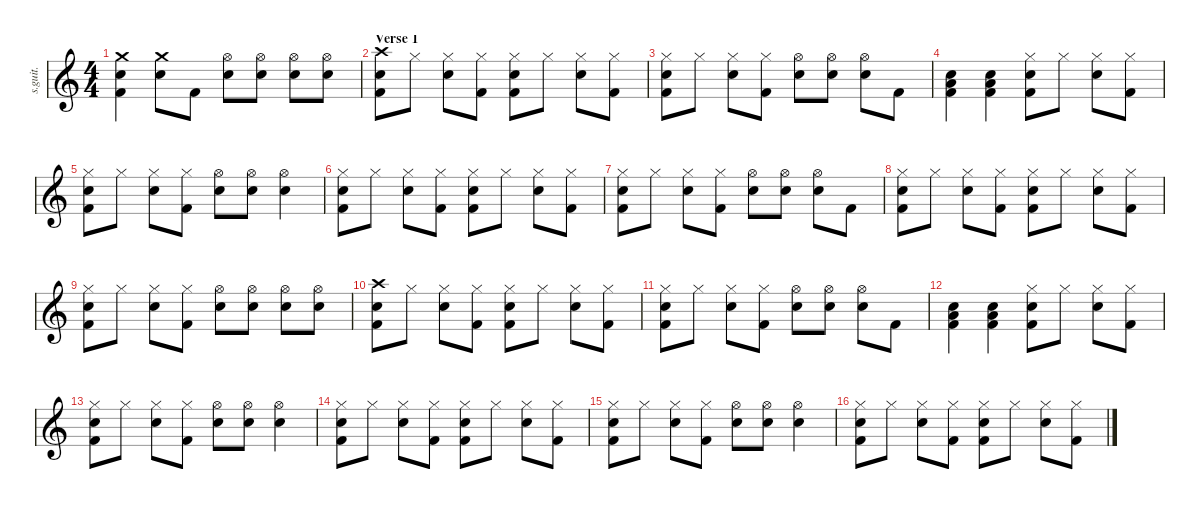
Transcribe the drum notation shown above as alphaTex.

\defaultSystemsLayout 4
\hideDynamics
\bracketExtendMode nobrackets
\track ("Earth" "s.guit.") {instrument percussion}
\staff {score}
\articulation defaults
\ts (4 4)
\tempo (130 hide)
\clef g2
\ks c
("Crash medium (hit)" "Snare (hit) 2" "Kick (hit) 2").4{lyrics (0 "") lyrics (1 "") lyrics (2 "") lyrics (3 "") lyrics (4 "") dy f} ("Crash medium (hit)" "Snare (hit) 2").8{lyrics (0 "") lyrics (1 "") lyrics (2 "") lyrics (3 "") lyrics (4 "")} "Kick (hit) 2".8{lyrics (0 "") lyrics (1 "") lyrics (2 "") lyrics (3 "") lyrics (4 "")} ("Hi-Hat (open)" "Snare (hit) 2").8{lyrics (0 "") lyrics (1 "") lyrics (2 "") lyrics (3 "") lyrics (4 "")} ("Hi-Hat (open)" "Snare (hit) 2").8{lyrics (0 "") lyrics (1 "") lyrics (2 "") lyrics (3 "") lyrics (4 "")} ("Hi-Hat (open)" "Snare (hit) 2").8{lyrics (0 "") lyrics (1 "") lyrics (2 "") lyrics (3 "") lyrics (4 "")} ("Hi-Hat (open)" "Snare (hit) 2").8{lyrics (0 "") lyrics (1 "") lyrics (2 "") lyrics (3 "") lyrics (4 "")} |
\section ("" "Verse 1")
("Crash high (hit)" "Snare (hit) 2" "Kick (hit) 2").8{lyrics (0 "") lyrics (1 "") lyrics (2 "") lyrics (3 "") lyrics (4 "")} "Hi-Hat (closed)".8{lyrics (0 "") lyrics (1 "") lyrics (2 "") lyrics (3 "") lyrics (4 "")} ("Hi-Hat (closed)" "Snare (hit) 2").8{lyrics (0 "") lyrics (1 "") lyrics (2 "") lyrics (3 "") lyrics (4 "")} ("Hi-Hat (closed)" "Kick (hit) 2").8{lyrics (0 "") lyrics (1 "") lyrics (2 "") lyrics (3 "") lyrics (4 "")} ("Hi-Hat (closed)" "Snare (hit) 2" "Kick (hit) 2").8{lyrics (0 "") lyrics (1 "") lyrics (2 "") lyrics (3 "") lyrics (4 "")} "Hi-Hat (closed)".8{lyrics (0 "") lyrics (1 "") lyrics (2 "") lyrics (3 "") lyrics (4 "")} ("Hi-Hat (closed)" "Snare (hit) 2").8{lyrics (0 "") lyrics (1 "") lyrics (2 "") lyrics (3 "") lyrics (4 "")} ("Hi-Hat (closed)" "Kick (hit) 2").8{lyrics (0 "") lyrics (1 "") lyrics (2 "") lyrics (3 "") lyrics (4 "")} |
("Hi-Hat (closed)" "Snare (hit) 2" "Kick (hit) 2").8{lyrics (0 "") lyrics (1 "") lyrics (2 "") lyrics (3 "") lyrics (4 "")} "Hi-Hat (closed)".8{lyrics (0 "") lyrics (1 "") lyrics (2 "") lyrics (3 "") lyrics (4 "")} ("Hi-Hat (closed)" "Snare (hit) 2").8{lyrics (0 "") lyrics (1 "") lyrics (2 "") lyrics (3 "") lyrics (4 "")} ("Hi-Hat (closed)" "Kick (hit) 2").8{lyrics (0 "") lyrics (1 "") lyrics (2 "") lyrics (3 "") lyrics (4 "")} ("Hi-Hat (open)" "Snare (hit) 2").8{lyrics (0 "") lyrics (1 "") lyrics (2 "") lyrics (3 "") lyrics (4 "")} ("Hi-Hat (open)" "Snare (hit) 2").8{lyrics (0 "") lyrics (1 "") lyrics (2 "") lyrics (3 "") lyrics (4 "")} ("Hi-Hat (open)" "Snare (hit) 2").8{lyrics (0 "") lyrics (1 "") lyrics (2 "") lyrics (3 "") lyrics (4 "")} "Kick (hit) 2".8{lyrics (0 "") lyrics (1 "") lyrics (2 "") lyrics (3 "") lyrics (4 "")} |
("Snare (hit) 2" "Low Tom (hit)" "Kick (hit) 2").4{lyrics (0 "") lyrics (1 "") lyrics (2 "") lyrics (3 "") lyrics (4 "")} ("Snare (hit) 2" "Low Tom (hit)" "Kick (hit) 2").4{lyrics (0 "") lyrics (1 "") lyrics (2 "") lyrics (3 "") lyrics (4 "")} ("Hi-Hat (closed)" "Snare (hit) 2" "Kick (hit) 2").8{lyrics (0 "") lyrics (1 "") lyrics (2 "") lyrics (3 "") lyrics (4 "")} "Hi-Hat (closed)".8{lyrics (0 "") lyrics (1 "") lyrics (2 "") lyrics (3 "") lyrics (4 "")} ("Hi-Hat (closed)" "Snare (hit) 2").8{lyrics (0 "") lyrics (1 "") lyrics (2 "") lyrics (3 "") lyrics (4 "")} ("Hi-Hat (closed)" "Kick (hit) 2").8{lyrics (0 "") lyrics (1 "") lyrics (2 "") lyrics (3 "") lyrics (4 "")} |
("Hi-Hat (closed)" "Snare (hit) 2" "Kick (hit) 2").8{lyrics (0 "") lyrics (1 "") lyrics (2 "") lyrics (3 "") lyrics (4 "")} "Hi-Hat (closed)".8{lyrics (0 "") lyrics (1 "") lyrics (2 "") lyrics (3 "") lyrics (4 "")} ("Hi-Hat (closed)" "Snare (hit) 2").8{lyrics (0 "") lyrics (1 "") lyrics (2 "") lyrics (3 "") lyrics (4 "")} ("Hi-Hat (closed)" "Kick (hit) 2").8{lyrics (0 "") lyrics (1 "") lyrics (2 "") lyrics (3 "") lyrics (4 "")} ("Hi-Hat (open)" "Snare (hit) 2").8{lyrics (0 "") lyrics (1 "") lyrics (2 "") lyrics (3 "") lyrics (4 "")} ("Hi-Hat (open)" "Snare (hit) 2").8{lyrics (0 "") lyrics (1 "") lyrics (2 "") lyrics (3 "") lyrics (4 "")} ("Hi-Hat (open)" "Snare (hit) 2").4{lyrics (0 "") lyrics (1 "") lyrics (2 "") lyrics (3 "") lyrics (4 "")} |
("Hi-Hat (closed)" "Snare (hit) 2" "Kick (hit) 2").8{lyrics (0 "") lyrics (1 "") lyrics (2 "") lyrics (3 "") lyrics (4 "")} "Hi-Hat (closed)".8{lyrics (0 "") lyrics (1 "") lyrics (2 "") lyrics (3 "") lyrics (4 "")} ("Hi-Hat (closed)" "Snare (hit) 2").8{lyrics (0 "") lyrics (1 "") lyrics (2 "") lyrics (3 "") lyrics (4 "")} ("Hi-Hat (closed)" "Kick (hit) 2").8{lyrics (0 "") lyrics (1 "") lyrics (2 "") lyrics (3 "") lyrics (4 "")} ("Hi-Hat (closed)" "Snare (hit) 2" "Kick (hit) 2").8{lyrics (0 "") lyrics (1 "") lyrics (2 "") lyrics (3 "") lyrics (4 "")} "Hi-Hat (closed)".8{lyrics (0 "") lyrics (1 "") lyrics (2 "") lyrics (3 "") lyrics (4 "")} ("Hi-Hat (closed)" "Snare (hit) 2").8{lyrics (0 "") lyrics (1 "") lyrics (2 "") lyrics (3 "") lyrics (4 "")} ("Hi-Hat (closed)" "Kick (hit) 2").8{lyrics (0 "") lyrics (1 "") lyrics (2 "") lyrics (3 "") lyrics (4 "")} |
("Hi-Hat (closed)" "Snare (hit) 2" "Kick (hit) 2").8{lyrics (0 "") lyrics (1 "") lyrics (2 "") lyrics (3 "") lyrics (4 "")} "Hi-Hat (closed)".8{lyrics (0 "") lyrics (1 "") lyrics (2 "") lyrics (3 "") lyrics (4 "")} ("Hi-Hat (closed)" "Snare (hit) 2").8{lyrics (0 "") lyrics (1 "") lyrics (2 "") lyrics (3 "") lyrics (4 "")} ("Hi-Hat (closed)" "Kick (hit) 2").8{lyrics (0 "") lyrics (1 "") lyrics (2 "") lyrics (3 "") lyrics (4 "")} ("Hi-Hat (open)" "Snare (hit) 2").8{lyrics (0 "") lyrics (1 "") lyrics (2 "") lyrics (3 "") lyrics (4 "")} ("Hi-Hat (open)" "Snare (hit) 2").8{lyrics (0 "") lyrics (1 "") lyrics (2 "") lyrics (3 "") lyrics (4 "")} ("Hi-Hat (open)" "Snare (hit) 2").8{lyrics (0 "") lyrics (1 "") lyrics (2 "") lyrics (3 "") lyrics (4 "")} "Kick (hit) 2".8{lyrics (0 "") lyrics (1 "") lyrics (2 "") lyrics (3 "") lyrics (4 "")} |
("Hi-Hat (closed)" "Snare (hit) 2" "Kick (hit) 2").8{lyrics (0 "") lyrics (1 "") lyrics (2 "") lyrics (3 "") lyrics (4 "")} "Hi-Hat (closed)".8{lyrics (0 "") lyrics (1 "") lyrics (2 "") lyrics (3 "") lyrics (4 "")} ("Hi-Hat (closed)" "Snare (hit) 2").8{lyrics (0 "") lyrics (1 "") lyrics (2 "") lyrics (3 "") lyrics (4 "")} ("Hi-Hat (closed)" "Kick (hit) 2").8{lyrics (0 "") lyrics (1 "") lyrics (2 "") lyrics (3 "") lyrics (4 "")} ("Hi-Hat (closed)" "Snare (hit) 2" "Kick (hit) 2").8{lyrics (0 "") lyrics (1 "") lyrics (2 "") lyrics (3 "") lyrics (4 "")} "Hi-Hat (closed)".8{lyrics (0 "") lyrics (1 "") lyrics (2 "") lyrics (3 "") lyrics (4 "")} ("Hi-Hat (closed)" "Snare (hit) 2").8{lyrics (0 "") lyrics (1 "") lyrics (2 "") lyrics (3 "") lyrics (4 "")} ("Hi-Hat (closed)" "Kick (hit) 2").8{lyrics (0 "") lyrics (1 "") lyrics (2 "") lyrics (3 "") lyrics (4 "")} |
("Hi-Hat (closed)" "Snare (hit) 2" "Kick (hit) 2").8{lyrics (0 "") lyrics (1 "") lyrics (2 "") lyrics (3 "") lyrics (4 "")} "Hi-Hat (closed)".8{lyrics (0 "") lyrics (1 "") lyrics (2 "") lyrics (3 "") lyrics (4 "")} ("Hi-Hat (closed)" "Snare (hit) 2").8{lyrics (0 "") lyrics (1 "") lyrics (2 "") lyrics (3 "") lyrics (4 "")} ("Hi-Hat (closed)" "Kick (hit) 2").8{lyrics (0 "") lyrics (1 "") lyrics (2 "") lyrics (3 "") lyrics (4 "")} ("Hi-Hat (open)" "Snare (hit) 2").8{lyrics (0 "") lyrics (1 "") lyrics (2 "") lyrics (3 "") lyrics (4 "")} ("Hi-Hat (open)" "Snare (hit) 2").8{lyrics (0 "") lyrics (1 "") lyrics (2 "") lyrics (3 "") lyrics (4 "")} ("Hi-Hat (open)" "Snare (hit) 2").8{lyrics (0 "") lyrics (1 "") lyrics (2 "") lyrics (3 "") lyrics (4 "")} ("Hi-Hat (open)" "Snare (hit) 2").8{lyrics (0 "") lyrics (1 "") lyrics (2 "") lyrics (3 "") lyrics (4 "")} |
("Crash high (hit)" "Snare (hit) 2" "Kick (hit) 2").8{lyrics (0 "") lyrics (1 "") lyrics (2 "") lyrics (3 "") lyrics (4 "")} "Hi-Hat (closed)".8{lyrics (0 "") lyrics (1 "") lyrics (2 "") lyrics (3 "") lyrics (4 "")} ("Hi-Hat (closed)" "Snare (hit) 2").8{lyrics (0 "") lyrics (1 "") lyrics (2 "") lyrics (3 "") lyrics (4 "")} ("Hi-Hat (closed)" "Kick (hit) 2").8{lyrics (0 "") lyrics (1 "") lyrics (2 "") lyrics (3 "") lyrics (4 "")} ("Hi-Hat (closed)" "Snare (hit) 2" "Kick (hit) 2").8{lyrics (0 "") lyrics (1 "") lyrics (2 "") lyrics (3 "") lyrics (4 "")} "Hi-Hat (closed)".8{lyrics (0 "") lyrics (1 "") lyrics (2 "") lyrics (3 "") lyrics (4 "")} ("Hi-Hat (closed)" "Snare (hit) 2").8{lyrics (0 "") lyrics (1 "") lyrics (2 "") lyrics (3 "") lyrics (4 "")} ("Hi-Hat (closed)" "Kick (hit) 2").8{lyrics (0 "") lyrics (1 "") lyrics (2 "") lyrics (3 "") lyrics (4 "")} |
("Hi-Hat (closed)" "Snare (hit) 2" "Kick (hit) 2").8{lyrics (0 "") lyrics (1 "") lyrics (2 "") lyrics (3 "") lyrics (4 "")} "Hi-Hat (closed)".8{lyrics (0 "") lyrics (1 "") lyrics (2 "") lyrics (3 "") lyrics (4 "")} ("Hi-Hat (closed)" "Snare (hit) 2").8{lyrics (0 "") lyrics (1 "") lyrics (2 "") lyrics (3 "") lyrics (4 "")} ("Hi-Hat (closed)" "Kick (hit) 2").8{lyrics (0 "") lyrics (1 "") lyrics (2 "") lyrics (3 "") lyrics (4 "")} ("Hi-Hat (open)" "Snare (hit) 2").8{lyrics (0 "") lyrics (1 "") lyrics (2 "") lyrics (3 "") lyrics (4 "")} ("Hi-Hat (open)" "Snare (hit) 2").8{lyrics (0 "") lyrics (1 "") lyrics (2 "") lyrics (3 "") lyrics (4 "")} ("Hi-Hat (open)" "Snare (hit) 2").8{lyrics (0 "") lyrics (1 "") lyrics (2 "") lyrics (3 "") lyrics (4 "")} "Kick (hit) 2".8{lyrics (0 "") lyrics (1 "") lyrics (2 "") lyrics (3 "") lyrics (4 "")} |
("Snare (hit) 2" "Low Tom (hit)" "Kick (hit) 2").4{lyrics (0 "") lyrics (1 "") lyrics (2 "") lyrics (3 "") lyrics (4 "")} ("Snare (hit) 2" "Low Tom (hit)" "Kick (hit) 2").4{lyrics (0 "") lyrics (1 "") lyrics (2 "") lyrics (3 "") lyrics (4 "")} ("Hi-Hat (closed)" "Snare (hit) 2" "Kick (hit) 2").8{lyrics (0 "") lyrics (1 "") lyrics (2 "") lyrics (3 "") lyrics (4 "")} "Hi-Hat (closed)".8{lyrics (0 "") lyrics (1 "") lyrics (2 "") lyrics (3 "") lyrics (4 "")} ("Hi-Hat (closed)" "Snare (hit) 2").8{lyrics (0 "") lyrics (1 "") lyrics (2 "") lyrics (3 "") lyrics (4 "")} ("Hi-Hat (closed)" "Kick (hit) 2").8{lyrics (0 "") lyrics (1 "") lyrics (2 "") lyrics (3 "") lyrics (4 "")} |
("Hi-Hat (closed)" "Snare (hit) 2" "Kick (hit) 2").8{lyrics (0 "") lyrics (1 "") lyrics (2 "") lyrics (3 "") lyrics (4 "")} "Hi-Hat (closed)".8{lyrics (0 "") lyrics (1 "") lyrics (2 "") lyrics (3 "") lyrics (4 "")} ("Hi-Hat (closed)" "Snare (hit) 2").8{lyrics (0 "") lyrics (1 "") lyrics (2 "") lyrics (3 "") lyrics (4 "")} ("Hi-Hat (closed)" "Kick (hit) 2").8{lyrics (0 "") lyrics (1 "") lyrics (2 "") lyrics (3 "") lyrics (4 "")} ("Hi-Hat (open)" "Snare (hit) 2").8{lyrics (0 "") lyrics (1 "") lyrics (2 "") lyrics (3 "") lyrics (4 "")} ("Hi-Hat (open)" "Snare (hit) 2").8{lyrics (0 "") lyrics (1 "") lyrics (2 "") lyrics (3 "") lyrics (4 "")} ("Hi-Hat (open)" "Snare (hit) 2").4{lyrics (0 "") lyrics (1 "") lyrics (2 "") lyrics (3 "") lyrics (4 "")} |
("Hi-Hat (closed)" "Snare (hit) 2" "Kick (hit) 2").8{lyrics (0 "") lyrics (1 "") lyrics (2 "") lyrics (3 "") lyrics (4 "")} "Hi-Hat (closed)".8{lyrics (0 "") lyrics (1 "") lyrics (2 "") lyrics (3 "") lyrics (4 "")} ("Hi-Hat (closed)" "Snare (hit) 2").8{lyrics (0 "") lyrics (1 "") lyrics (2 "") lyrics (3 "") lyrics (4 "")} ("Hi-Hat (closed)" "Kick (hit) 2").8{lyrics (0 "") lyrics (1 "") lyrics (2 "") lyrics (3 "") lyrics (4 "")} ("Hi-Hat (closed)" "Snare (hit) 2" "Kick (hit) 2").8{lyrics (0 "") lyrics (1 "") lyrics (2 "") lyrics (3 "") lyrics (4 "")} "Hi-Hat (closed)".8{lyrics (0 "") lyrics (1 "") lyrics (2 "") lyrics (3 "") lyrics (4 "")} ("Hi-Hat (closed)" "Snare (hit) 2").8{lyrics (0 "") lyrics (1 "") lyrics (2 "") lyrics (3 "") lyrics (4 "")} ("Hi-Hat (closed)" "Kick (hit) 2").8{lyrics (0 "") lyrics (1 "") lyrics (2 "") lyrics (3 "") lyrics (4 "")} |
("Hi-Hat (closed)" "Snare (hit) 2" "Kick (hit) 2").8{lyrics (0 "") lyrics (1 "") lyrics (2 "") lyrics (3 "") lyrics (4 "")} "Hi-Hat (closed)".8{lyrics (0 "") lyrics (1 "") lyrics (2 "") lyrics (3 "") lyrics (4 "")} ("Hi-Hat (closed)" "Snare (hit) 2").8{lyrics (0 "") lyrics (1 "") lyrics (2 "") lyrics (3 "") lyrics (4 "")} ("Hi-Hat (closed)" "Kick (hit) 2").8{lyrics (0 "") lyrics (1 "") lyrics (2 "") lyrics (3 "") lyrics (4 "")} ("Hi-Hat (open)" "Snare (hit) 2").8{lyrics (0 "") lyrics (1 "") lyrics (2 "") lyrics (3 "") lyrics (4 "")} ("Hi-Hat (open)" "Snare (hit) 2").8{lyrics (0 "") lyrics (1 "") lyrics (2 "") lyrics (3 "") lyrics (4 "")} ("Hi-Hat (open)" "Snare (hit) 2").4{lyrics (0 "") lyrics (1 "") lyrics (2 "") lyrics (3 "") lyrics (4 "")} |
("Hi-Hat (closed)" "Snare (hit) 2" "Kick (hit) 2").8{lyrics (0 "") lyrics (1 "") lyrics (2 "") lyrics (3 "") lyrics (4 "")} "Hi-Hat (closed)".8{lyrics (0 "") lyrics (1 "") lyrics (2 "") lyrics (3 "") lyrics (4 "")} ("Hi-Hat (closed)" "Snare (hit) 2").8{lyrics (0 "") lyrics (1 "") lyrics (2 "") lyrics (3 "") lyrics (4 "")} ("Hi-Hat (closed)" "Kick (hit) 2").8{lyrics (0 "") lyrics (1 "") lyrics (2 "") lyrics (3 "") lyrics (4 "")} ("Hi-Hat (closed)" "Snare (hit) 2" "Kick (hit) 2").8{lyrics (0 "") lyrics (1 "") lyrics (2 "") lyrics (3 "") lyrics (4 "")} "Hi-Hat (closed)".8{lyrics (0 "") lyrics (1 "") lyrics (2 "") lyrics (3 "") lyrics (4 "")} ("Hi-Hat (closed)" "Snare (hit) 2").8{lyrics (0 "") lyrics (1 "") lyrics (2 "") lyrics (3 "") lyrics (4 "")} ("Hi-Hat (closed)" "Kick (hit) 2").8{lyrics (0 "") lyrics (1 "") lyrics (2 "") lyrics (3 "") lyrics (4 "")}
